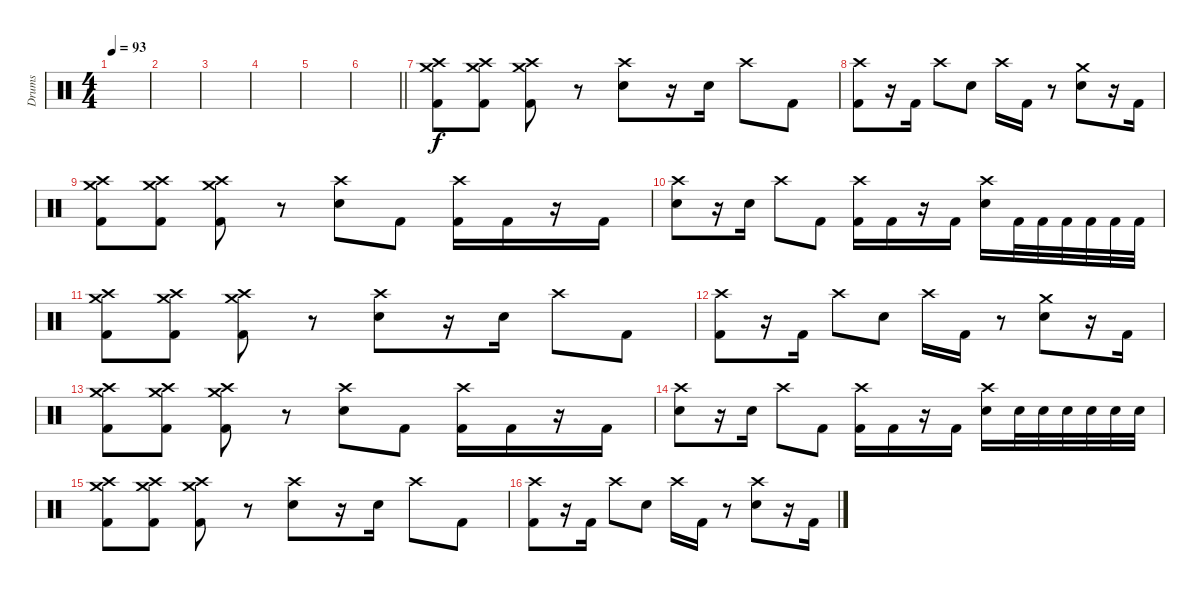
\track ("Drums" "Drums") {instrument percussion}
\staff {score}
\articulation defaults
\ts (4 4)
\tempo 93
\clef neutral
\ks c
|
|
|
|
|
\barLineRight lightlight
|
("Crash medium (hit)" "Crash high (hit)" "Kick (hit) 2").8 ("Crash medium (hit)" "Crash high (hit)" "Kick (hit) 2").8 ("Crash medium (hit)" "Crash high (hit)" "Kick (hit) 2").8 r.8 ("Crash high (hit)" "Electric Snare (hit)").8 r.16 "Electric Snare (hit)".16 "Crash high (hit)".8 "Kick (hit) 2".8 |
("Crash high (hit)" "Kick (hit) 2").8 r.16 "Kick (hit) 2".16 "Crash high (hit)".8 "Electric Snare (hit)".8 "Crash high (hit)".16 "Kick (hit) 2".16 r.8 ("Crash medium (hit)" "Electric Snare (hit)").8 r.16 "Kick (hit) 2".16 |
("Crash medium (hit)" "Crash high (hit)" "Kick (hit) 2").8 ("Crash medium (hit)" "Crash high (hit)" "Kick (hit) 2").8 ("Crash medium (hit)" "Crash high (hit)" "Kick (hit) 2").8 r.8 ("Crash high (hit)" "Electric Snare (hit)").8 "Kick (hit) 2".8 ("Crash high (hit)" "Kick (hit) 2").16 "Kick (hit) 2".16 r.16 "Kick (hit) 2".16 |
("Crash high (hit)" "Electric Snare (hit)").8 r.16 "Electric Snare (hit)".16 "Crash high (hit)".8 "Kick (hit) 2".8 ("Crash high (hit)" "Kick (hit) 2").16 "Kick (hit) 2".16 r.16 "Kick (hit) 2".16 ("Crash high (hit)" "Electric Snare (hit)").16 "Kick (hit) 2".32 "Kick (hit) 2".32 "Kick (hit) 2".32 "Kick (hit) 2".32 "Kick (hit) 2".32 "Kick (hit) 2".32 |
("Crash medium (hit)" "Crash high (hit)" "Kick (hit) 2").8 ("Crash medium (hit)" "Crash high (hit)" "Kick (hit) 2").8 ("Crash medium (hit)" "Crash high (hit)" "Kick (hit) 2").8 r.8 ("Crash high (hit)" "Electric Snare (hit)").8 r.16 "Electric Snare (hit)".16 "Crash high (hit)".8 "Kick (hit) 2".8 |
("Crash high (hit)" "Kick (hit) 2").8 r.16 "Kick (hit) 2".16 "Crash high (hit)".8 "Electric Snare (hit)".8 "Crash high (hit)".16 "Kick (hit) 2".16 r.8 ("Crash medium (hit)" "Electric Snare (hit)").8 r.16 "Kick (hit) 2".16 |
("Crash medium (hit)" "Crash high (hit)" "Kick (hit) 2").8 ("Crash medium (hit)" "Crash high (hit)" "Kick (hit) 2").8 ("Crash medium (hit)" "Crash high (hit)" "Kick (hit) 2").8 r.8 ("Crash high (hit)" "Electric Snare (hit)").8 "Kick (hit) 2".8 ("Crash high (hit)" "Kick (hit) 2").16 "Kick (hit) 2".16 r.16 "Kick (hit) 2".16 |
("Crash high (hit)" "Electric Snare (hit)").8 r.16 "Electric Snare (hit)".16 "Crash high (hit)".8 "Kick (hit) 2".8 ("Crash high (hit)" "Kick (hit) 2").16 "Kick (hit) 2".16 r.16 "Kick (hit) 2".16 ("Crash high (hit)" "Electric Snare (hit)").16 "Electric Snare (hit)".32 "Electric Snare (hit)".32 "Electric Snare (hit)".32 "Electric Snare (hit)".32 "Electric Snare (hit)".32 "Electric Snare (hit)".32 |
("Crash medium (hit)" "Crash high (hit)" "Kick (hit) 2").8 ("Crash medium (hit)" "Crash high (hit)" "Kick (hit) 2").8 ("Crash medium (hit)" "Crash high (hit)" "Kick (hit) 2").8 r.8 ("Crash high (hit)" "Electric Snare (hit)").8 r.16 "Electric Snare (hit)".16 "Crash high (hit)".8 "Kick (hit) 2".8 |
("Crash high (hit)" "Kick (hit) 2").8 r.16 "Kick (hit) 2".16 "Crash high (hit)".8 "Electric Snare (hit)".8 "Crash high (hit)".16 "Kick (hit) 2".16 r.8 ("Crash high (hit)" "Electric Snare (hit)").8 r.16 "Kick (hit) 2".16
